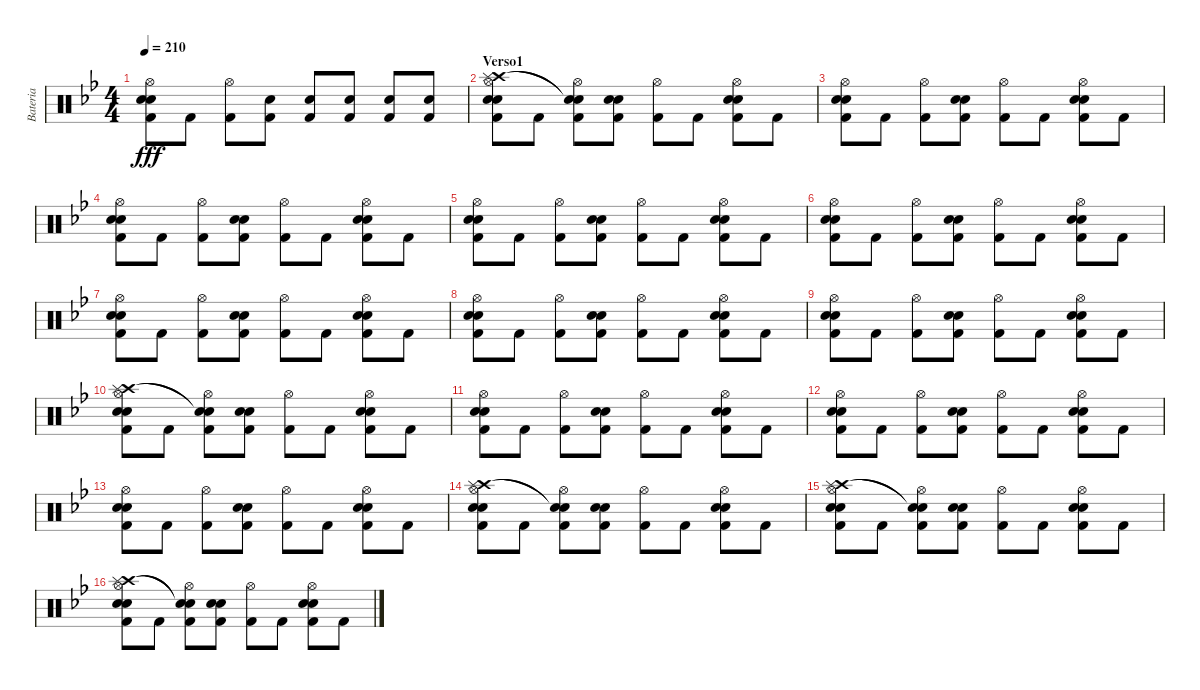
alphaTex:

\track ("Bateria" "Bateria") {instrument percussion}
\staff {score}
\articulation defaults
\ts (4 4)
\tempo 210
\clef neutral
\ks gminor
("Hi-Hat (open)" "Snare (hit) 2" "Kick (hit) 2" "Electric Snare (hit)").8{dy fff} "Kick (hit) 2".8 ("Hi-Hat (open)" "Kick (hit) 2").8 ("Snare (hit) 2" "Kick (hit) 2").8 ("Snare (hit) 2" "Kick (hit) 2").8 ("Snare (hit) 2" "Kick (hit) 2").8 ("Snare (hit) 2" "Kick (hit) 2").8 ("Snare (hit) 2" "Kick (hit) 2").8 |
\section ("" "Verso1")
("Hi-Hat (open)" "Crash high (hit)" "Splash (hit)" "Snare (hit) 2" "Electric Snare (hit)" "Kick (hit) 2").8 "Kick (hit) 2".8 ("Hi-Hat (open)" "Snare (hit)"{t} "Snare (hit)"{t} "Kick (hit) 2").8 ("Snare (hit) 2" "Electric Snare (hit)" "Kick (hit) 2").8 ("Hi-Hat (open)" "Kick (hit) 2").8 "Kick (hit) 2".8 ("Hi-Hat (open)" "Snare (hit) 2" "Electric Snare (hit)" "Kick (hit) 2").8 "Kick (hit) 2".8 |
("Hi-Hat (open)" "Snare (hit) 2" "Kick (hit) 2" "Electric Snare (hit)").8 "Kick (hit) 2".8 ("Hi-Hat (open)" "Kick (hit) 2").8 ("Snare (hit) 2" "Kick (hit) 2" "Electric Snare (hit)").8 ("Hi-Hat (open)" "Kick (hit) 2").8 "Kick (hit) 2".8 ("Hi-Hat (open)" "Snare (hit) 2" "Kick (hit) 2" "Electric Snare (hit)").8 "Kick (hit) 2".8 |
("Hi-Hat (open)" "Snare (hit) 2" "Kick (hit) 2" "Electric Snare (hit)").8 "Kick (hit) 2".8 ("Hi-Hat (open)" "Kick (hit) 2").8 ("Snare (hit) 2" "Kick (hit) 2" "Electric Snare (hit)").8 ("Hi-Hat (open)" "Kick (hit) 2").8 "Kick (hit) 2".8 ("Hi-Hat (open)" "Snare (hit) 2" "Kick (hit) 2" "Electric Snare (hit)").8 "Kick (hit) 2".8 |
("Hi-Hat (open)" "Snare (hit) 2" "Kick (hit) 2" "Electric Snare (hit)").8 "Kick (hit) 2".8 ("Hi-Hat (open)" "Kick (hit) 2").8 ("Snare (hit) 2" "Kick (hit) 2" "Electric Snare (hit)").8 ("Hi-Hat (open)" "Kick (hit) 2").8 "Kick (hit) 2".8 ("Hi-Hat (open)" "Snare (hit) 2" "Kick (hit) 2" "Electric Snare (hit)").8 "Kick (hit) 2".8 |
("Hi-Hat (open)" "Snare (hit) 2" "Kick (hit) 2" "Electric Snare (hit)").8 "Kick (hit) 2".8 ("Hi-Hat (open)" "Kick (hit) 2").8 ("Snare (hit) 2" "Kick (hit) 2" "Electric Snare (hit)").8 ("Hi-Hat (open)" "Kick (hit) 2").8 "Kick (hit) 2".8 ("Hi-Hat (open)" "Snare (hit) 2" "Kick (hit) 2" "Electric Snare (hit)").8 "Kick (hit) 2".8 |
("Hi-Hat (open)" "Snare (hit) 2" "Kick (hit) 2" "Electric Snare (hit)").8 "Kick (hit) 2".8 ("Hi-Hat (open)" "Kick (hit) 2").8 ("Snare (hit) 2" "Kick (hit) 2" "Electric Snare (hit)").8 ("Hi-Hat (open)" "Kick (hit) 2").8 "Kick (hit) 2".8 ("Hi-Hat (open)" "Snare (hit) 2" "Kick (hit) 2" "Electric Snare (hit)").8 "Kick (hit) 2".8 |
("Hi-Hat (open)" "Snare (hit) 2" "Kick (hit) 2" "Electric Snare (hit)").8 "Kick (hit) 2".8 ("Hi-Hat (open)" "Kick (hit) 2").8 ("Snare (hit) 2" "Kick (hit) 2" "Electric Snare (hit)").8 ("Hi-Hat (open)" "Kick (hit) 2").8 "Kick (hit) 2".8 ("Hi-Hat (open)" "Snare (hit) 2" "Kick (hit) 2" "Electric Snare (hit)").8 "Kick (hit) 2".8 |
("Hi-Hat (open)" "Snare (hit) 2" "Kick (hit) 2" "Electric Snare (hit)").8 "Kick (hit) 2".8 ("Hi-Hat (open)" "Kick (hit) 2").8 ("Snare (hit) 2" "Kick (hit) 2" "Electric Snare (hit)").8 ("Hi-Hat (open)" "Kick (hit) 2").8 "Kick (hit) 2".8 ("Hi-Hat (open)" "Snare (hit) 2" "Kick (hit) 2" "Electric Snare (hit)").8 "Kick (hit) 2".8 |
("Hi-Hat (open)" "Crash high (hit)" "Splash (hit)" "Snare (hit) 2" "Kick (hit) 2" "Electric Snare (hit)").8 "Kick (hit) 2".8 ("Hi-Hat (open)" "Snare (hit)"{t} "Snare (hit)"{t} "Kick (hit) 2").8 ("Snare (hit) 2" "Kick (hit) 2" "Electric Snare (hit)").8 ("Hi-Hat (open)" "Kick (hit) 2").8 "Kick (hit) 2".8 ("Hi-Hat (open)" "Snare (hit) 2" "Kick (hit) 2" "Electric Snare (hit)").8 "Kick (hit) 2".8 |
("Hi-Hat (open)" "Snare (hit) 2" "Kick (hit) 2" "Electric Snare (hit)").8 "Kick (hit) 2".8 ("Hi-Hat (open)" "Kick (hit) 2").8 ("Snare (hit) 2" "Kick (hit) 2" "Electric Snare (hit)").8 ("Hi-Hat (open)" "Kick (hit) 2").8 "Kick (hit) 2".8 ("Hi-Hat (open)" "Snare (hit) 2" "Kick (hit) 2" "Electric Snare (hit)").8 "Kick (hit) 2".8 |
("Hi-Hat (open)" "Snare (hit) 2" "Kick (hit) 2" "Electric Snare (hit)").8 "Kick (hit) 2".8 ("Hi-Hat (open)" "Kick (hit) 2").8 ("Snare (hit) 2" "Kick (hit) 2" "Electric Snare (hit)").8 ("Hi-Hat (open)" "Kick (hit) 2").8 "Kick (hit) 2".8 ("Hi-Hat (open)" "Snare (hit) 2" "Kick (hit) 2" "Electric Snare (hit)").8 "Kick (hit) 2".8 |
("Hi-Hat (open)" "Snare (hit) 2" "Kick (hit) 2" "Electric Snare (hit)").8 "Kick (hit) 2".8 ("Hi-Hat (open)" "Kick (hit) 2").8 ("Snare (hit) 2" "Kick (hit) 2" "Electric Snare (hit)").8 ("Hi-Hat (open)" "Kick (hit) 2").8 "Kick (hit) 2".8 ("Hi-Hat (open)" "Snare (hit) 2" "Kick (hit) 2" "Electric Snare (hit)").8 "Kick (hit) 2".8 |
("Hi-Hat (open)" "Crash high (hit)" "Splash (hit)" "Snare (hit) 2" "Kick (hit) 2" "Electric Snare (hit)").8 "Kick (hit) 2".8 ("Hi-Hat (open)" "Snare (hit)"{t} "Snare (hit)"{t} "Kick (hit) 2").8 ("Snare (hit) 2" "Kick (hit) 2" "Electric Snare (hit)").8 ("Hi-Hat (open)" "Kick (hit) 2").8 "Kick (hit) 2".8 ("Hi-Hat (open)" "Snare (hit) 2" "Kick (hit) 2" "Electric Snare (hit)").8 "Kick (hit) 2".8 |
("Hi-Hat (open)" "Crash high (hit)" "Splash (hit)" "Snare (hit) 2" "Kick (hit) 2" "Electric Snare (hit)").8 "Kick (hit) 2".8 ("Hi-Hat (open)" "Snare (hit)"{t} "Snare (hit)"{t} "Kick (hit) 2").8 ("Snare (hit) 2" "Kick (hit) 2" "Electric Snare (hit)").8 ("Hi-Hat (open)" "Kick (hit) 2").8 "Kick (hit) 2".8 ("Hi-Hat (open)" "Snare (hit) 2" "Kick (hit) 2" "Electric Snare (hit)").8 "Kick (hit) 2".8 |
("Hi-Hat (open)" "Crash high (hit)" "Splash (hit)" "Snare (hit) 2" "Kick (hit) 2" "Electric Snare (hit)").8 "Kick (hit) 2".8 ("Hi-Hat (open)" "Snare (hit)"{t} "Snare (hit)"{t} "Kick (hit) 2").8 ("Snare (hit) 2" "Kick (hit) 2" "Electric Snare (hit)").8 ("Hi-Hat (open)" "Kick (hit) 2").8 "Kick (hit) 2".8 ("Hi-Hat (open)" "Snare (hit) 2" "Kick (hit) 2" "Electric Snare (hit)").8 "Kick (hit) 2".8
